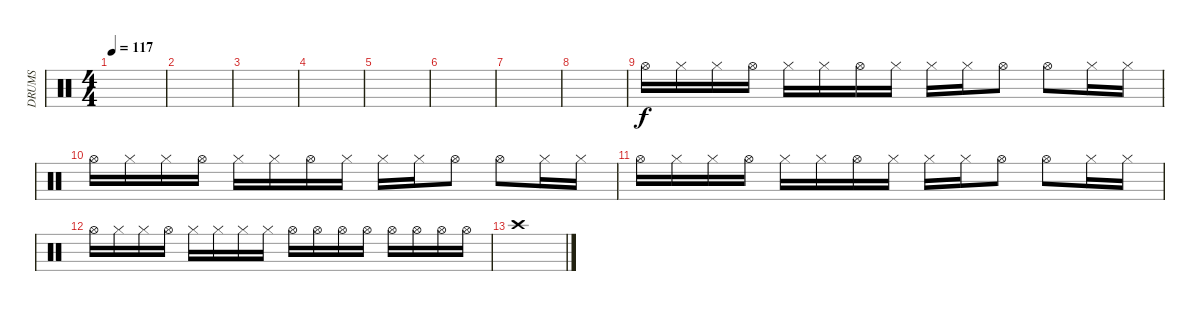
\track ("DRUMS" "DRUMS") {instrument percussion}
\staff {score}
\articulation defaults
\ts (4 4)
\tempo 117
\clef neutral
\ks c
|
|
|
|
|
|
|
|
"Hi-Hat (open)".16 "Hi-Hat (closed)".16 "Hi-Hat (closed)".16 "Hi-Hat (open)".16 "Hi-Hat (closed)".16 "Hi-Hat (closed)".16 "Hi-Hat (open)".16 "Hi-Hat (closed)".16 "Hi-Hat (closed)".16 "Hi-Hat (closed)".16 "Hi-Hat (open)".8 "Hi-Hat (open)".8 "Hi-Hat (closed)".16 "Hi-Hat (closed)".16 |
"Hi-Hat (open)".16 "Hi-Hat (closed)".16 "Hi-Hat (closed)".16 "Hi-Hat (open)".16 "Hi-Hat (closed)".16 "Hi-Hat (closed)".16 "Hi-Hat (open)".16 "Hi-Hat (closed)".16 "Hi-Hat (closed)".16 "Hi-Hat (closed)".16 "Hi-Hat (open)".8 "Hi-Hat (open)".8 "Hi-Hat (closed)".16 "Hi-Hat (closed)".16 |
"Hi-Hat (open)".16 "Hi-Hat (closed)".16 "Hi-Hat (closed)".16 "Hi-Hat (open)".16 "Hi-Hat (closed)".16 "Hi-Hat (closed)".16 "Hi-Hat (open)".16 "Hi-Hat (closed)".16 "Hi-Hat (closed)".16 "Hi-Hat (closed)".16 "Hi-Hat (open)".8 "Hi-Hat (open)".8 "Hi-Hat (closed)".16 "Hi-Hat (closed)".16 |
"Hi-Hat (open)".16 "Hi-Hat (closed)".16 "Hi-Hat (closed)".16 "Hi-Hat (open)".16 "Hi-Hat (closed)".16 "Hi-Hat (closed)".16 "Hi-Hat (closed)".16 "Hi-Hat (closed)".16 "Hi-Hat (open)".16 "Hi-Hat (open)".16 "Hi-Hat (open)".16 "Hi-Hat (open)".16 "Hi-Hat (open)".16 "Hi-Hat (open)".16 "Hi-Hat (open)".16 "Hi-Hat (open)".16 |
"Crash high (hit)".1
